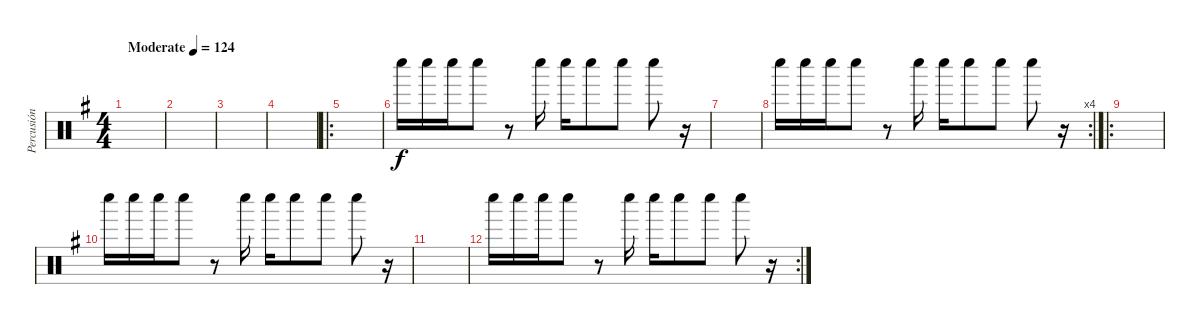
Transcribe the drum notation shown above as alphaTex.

\track ("Percusión" "Percusión") {instrument percussion}
\staff {score}
\articulation defaults
\ts (4 4)
\tempo (124 "Moderate")
\clef neutral
\ks g
|
|
|
|
\ro
|
"Whistle low (hit)".16 "Whistle low (hit)".16 "Whistle low (hit)".16 "Whistle low (hit)".8 r.8 "Whistle low (hit)".16 "Whistle low (hit)".16 "Whistle low (hit)".8 "Whistle low (hit)".8 "Whistle low (hit)".8 r.16 |
|
\rc 4 "Whistle low (hit)".16 "Whistle low (hit)".16 "Whistle low (hit)".16 "Whistle low (hit)".8
r.8 "Whistle low (hit)".16 "Whistle low (hit)".16 "Whistle low (hit)".8 "Whistle low (hit)".8 "Whistle low (hit)".8 r.16 |
\ro
|
"Whistle low (hit)".16 "Whistle low (hit)".16 "Whistle low (hit)".16 "Whistle low (hit)".8 r.8 "Whistle low (hit)".16 "Whistle low (hit)".16 "Whistle low (hit)".8 "Whistle low (hit)".8 "Whistle low (hit)".8 r.16 |
|
\rc 2 "Whistle low (hit)".16 "Whistle low (hit)".16 "Whistle low (hit)".16 "Whistle low (hit)".8
r.8 "Whistle low (hit)".16 "Whistle low (hit)".16 "Whistle low (hit)".8 "Whistle low (hit)".8 "Whistle low (hit)".8 r.16
